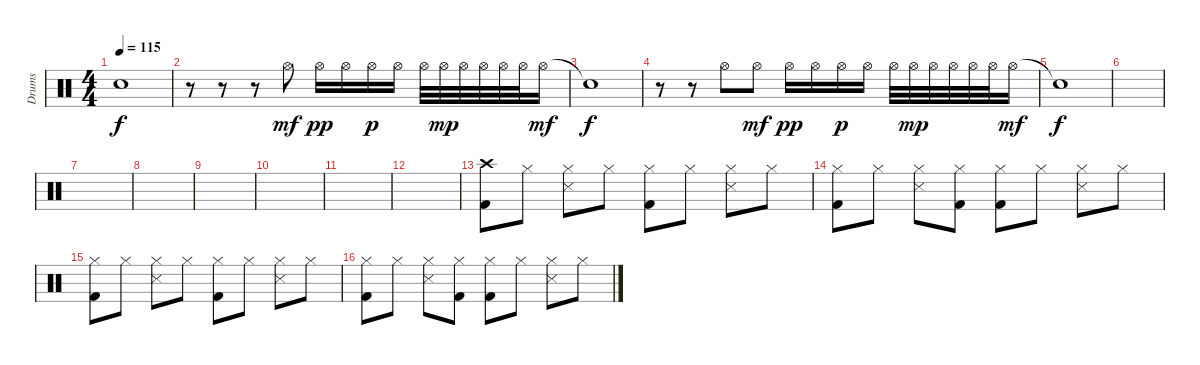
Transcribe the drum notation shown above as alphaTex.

\track ("Drums" "Drums") {instrument percussion}
\staff {score}
\articulation defaults
\ts (4 4)
\tempo 115
\clef neutral
\ks c "Snare (hit)"{t}.1{dy f}
|
r.8 r.8 r.8 "Hi-Hat (open)".8{dy mf} "Hi-Hat (open)".16{dy pp} "Hi-Hat (open)".16 "Hi-Hat (open)".16{dy p} "Hi-Hat (open)".16 "Hi-Hat (open)".32 "Hi-Hat (open)".32{dy mp} "Hi-Hat (open)".32 "Hi-Hat (open)".32 "Hi-Hat (open)".32 "Hi-Hat (open)".32 "Hi-Hat (open)".16{dy mf} |
"Snare (hit)"{t}.1{dy f} |
r.8 r.8 "Hi-Hat (open)".8 "Hi-Hat (open)".8{dy mf} "Hi-Hat (open)".16{dy pp} "Hi-Hat (open)".16 "Hi-Hat (open)".16{dy p} "Hi-Hat (open)".16 "Hi-Hat (open)".32 "Hi-Hat (open)".32{dy mp} "Hi-Hat (open)".32 "Hi-Hat (open)".32 "Hi-Hat (open)".32 "Hi-Hat (open)".32 "Hi-Hat (open)".16{dy mf} |
"Snare (hit)"{t}.1{dy f} |
|
|
|
|
|
|
|
("Crash high (hit)" "Kick (hit) 2").8 "Hi-Hat (closed)".8 ("Hi-Hat (closed)" "Snare (side stick) 3").8 "Hi-Hat (closed)".8 ("Hi-Hat (closed)" "Kick (hit) 2").8 "Hi-Hat (closed)".8 ("Hi-Hat (closed)" "Snare (side stick) 3").8 "Hi-Hat (closed)".8 |
("Hi-Hat (closed)" "Kick (hit) 2").8 "Hi-Hat (closed)".8 ("Hi-Hat (closed)" "Snare (side stick) 3").8 ("Hi-Hat (closed)" "Kick (hit) 2").8 ("Hi-Hat (closed)" "Kick (hit) 2").8 "Hi-Hat (closed)".8 ("Hi-Hat (closed)" "Snare (side stick) 3").8 "Hi-Hat (closed)".8 |
("Hi-Hat (closed)" "Kick (hit) 2").8 "Hi-Hat (closed)".8 ("Hi-Hat (closed)" "Snare (side stick) 3").8 "Hi-Hat (closed)".8 ("Hi-Hat (closed)" "Kick (hit) 2").8 "Hi-Hat (closed)".8 ("Hi-Hat (closed)" "Snare (side stick) 3").8 "Hi-Hat (closed)".8 |
("Hi-Hat (closed)" "Kick (hit) 2").8 "Hi-Hat (closed)".8 ("Hi-Hat (closed)" "Snare (side stick) 3").8 ("Hi-Hat (closed)" "Kick (hit) 2").8 ("Hi-Hat (closed)" "Kick (hit) 2").8 "Hi-Hat (closed)".8 ("Hi-Hat (closed)" "Snare (side stick) 3").8 "Hi-Hat (closed)".8
